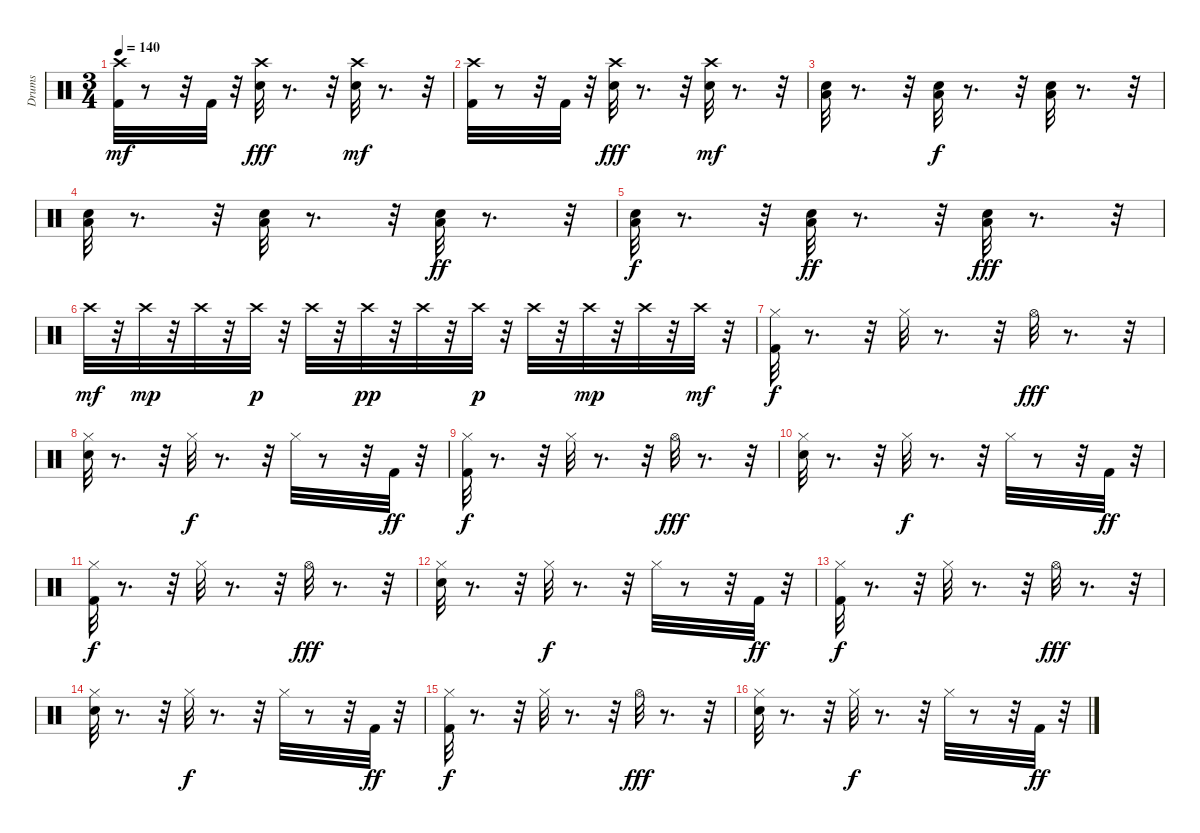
\track ("Drums" "Drums") {instrument percussion}
\staff {score}
\articulation defaults
\ts (3 4)
\tempo 140
\clef neutral
\ks c
("Kick (hit) 2" "Crash high (hit)").32{dy mf} r.8 r.32 "Kick (hit) 2".32 r.32 ("Snare (hit) 2" "Crash high (hit)").32{dy fff} r.8{d} r.32 ("Snare (hit) 2" "Crash high (hit)").32{dy mf} r.8{d} r.32 |
("Kick (hit) 2" "Crash high (hit)").32 r.8 r.32 "Kick (hit) 2".32 r.32 ("Snare (hit) 2" "Crash high (hit)").32{dy fff} r.8{d} r.32 ("Snare (hit) 2" "Crash high (hit)").32{dy mf} r.8{d} r.32 |
("Snare (hit) 2" "Low Floor Tom (hit)").32 r.8{d} r.32 ("Snare (hit) 2" "Low Floor Tom (hit)").32{dy f} r.8{d} r.32 ("Snare (hit) 2" "Low Floor Tom (hit)").32 r.8{d} r.32 |
("Snare (hit) 2" "Low Floor Tom (hit)").32 r.8{d} r.32 ("Snare (hit) 2" "Low Floor Tom (hit)").32 r.8{d} r.32 ("Snare (hit) 2" "Low Floor Tom (hit)").32{dy ff} r.8{d} r.32 |
("Snare (hit) 2" "Low Floor Tom (hit)").32{dy f} r.8{d} r.32 ("Snare (hit) 2" "Low Floor Tom (hit)").32{dy ff} r.8{d} r.32 ("Snare (hit) 2" "Low Floor Tom (hit)").32{dy fff} r.8{d} r.32 |
"Crash high (hit)".32{dy mf} r.32 "Crash high (hit)".32{dy mp} r.32 "Crash high (hit)".32 r.32 "Crash high (hit)".32{dy p} r.32 "Crash high (hit)".32 r.32 "Crash high (hit)".32{dy pp} r.32 "Crash high (hit)".32 r.32 "Crash high (hit)".32{dy p} r.32 "Crash high (hit)".32 r.32 "Crash high (hit)".32{dy mp} r.32 "Crash high (hit)".32 r.32 "Crash high (hit)".32{dy mf} r.32 |
("Hi-Hat (closed)" "Kick (hit) 2").32{dy f} r.8{d} r.32 "Hi-Hat (closed)".32 r.8{d} r.32 "Hi-Hat (open)".32{dy fff} r.8{d} r.32 |
("Snare (hit) 2" "Hi-Hat (closed)").32 r.8{d} r.32 "Hi-Hat (closed)".32{dy f} r.8{d} r.32 "Hi-Hat (closed)".32 r.8 r.32 "Kick (hit) 2".32{dy ff} r.32 |
("Hi-Hat (closed)" "Kick (hit) 2").32{dy f} r.8{d} r.32 "Hi-Hat (closed)".32 r.8{d} r.32 "Hi-Hat (open)".32{dy fff} r.8{d} r.32 |
("Snare (hit) 2" "Hi-Hat (closed)").32 r.8{d} r.32 "Hi-Hat (closed)".32{dy f} r.8{d} r.32 "Hi-Hat (closed)".32 r.8 r.32 "Kick (hit) 2".32{dy ff} r.32 |
("Hi-Hat (closed)" "Kick (hit) 2").32{dy f} r.8{d} r.32 "Hi-Hat (closed)".32 r.8{d} r.32 "Hi-Hat (open)".32{dy fff} r.8{d} r.32 |
("Snare (hit) 2" "Hi-Hat (closed)").32 r.8{d} r.32 "Hi-Hat (closed)".32{dy f} r.8{d} r.32 "Hi-Hat (closed)".32 r.8 r.32 "Kick (hit) 2".32{dy ff} r.32 |
("Hi-Hat (closed)" "Kick (hit) 2").32{dy f} r.8{d} r.32 "Hi-Hat (closed)".32 r.8{d} r.32 "Hi-Hat (open)".32{dy fff} r.8{d} r.32 |
("Snare (hit) 2" "Hi-Hat (closed)").32 r.8{d} r.32 "Hi-Hat (closed)".32{dy f} r.8{d} r.32 "Hi-Hat (closed)".32 r.8 r.32 "Kick (hit) 2".32{dy ff} r.32 |
("Hi-Hat (closed)" "Kick (hit) 2").32{dy f} r.8{d} r.32 "Hi-Hat (closed)".32 r.8{d} r.32 "Hi-Hat (open)".32{dy fff} r.8{d} r.32 |
("Snare (hit) 2" "Hi-Hat (closed)").32 r.8{d} r.32 "Hi-Hat (closed)".32{dy f} r.8{d} r.32 "Hi-Hat (closed)".32 r.8 r.32 "Kick (hit) 2".32{dy ff} r.32
